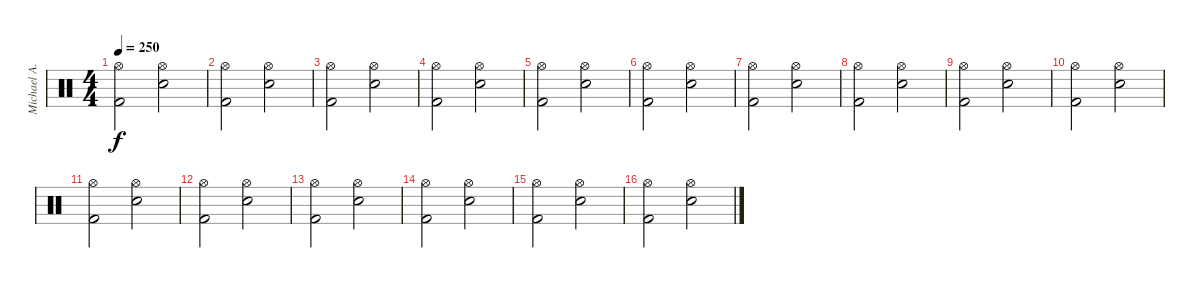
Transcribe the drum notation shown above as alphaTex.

\track ("Michael A." "Michael A.") {instrument percussion}
\staff {score}
\articulation defaults
\ts (4 4)
\tempo 250
\clef neutral
\ks c
("Hi-Hat (open)" "Kick (hit) 2").2{dy f} ("Hi-Hat (open)" "Electric Snare (hit)").2 |
("Hi-Hat (open)" "Kick (hit) 2").2 ("Hi-Hat (open)" "Electric Snare (hit)").2 |
("Hi-Hat (open)" "Kick (hit) 2").2 ("Hi-Hat (open)" "Electric Snare (hit)").2 |
("Hi-Hat (open)" "Kick (hit) 2").2 ("Hi-Hat (open)" "Electric Snare (hit)").2 |
("Hi-Hat (open)" "Kick (hit) 2").2 ("Hi-Hat (open)" "Electric Snare (hit)").2 |
("Hi-Hat (open)" "Kick (hit) 2").2 ("Hi-Hat (open)" "Electric Snare (hit)").2 |
("Hi-Hat (open)" "Kick (hit) 2").2 ("Hi-Hat (open)" "Electric Snare (hit)").2 |
("Hi-Hat (open)" "Kick (hit) 2").2 ("Hi-Hat (open)" "Electric Snare (hit)").2 |
("Hi-Hat (open)" "Kick (hit) 2").2 ("Hi-Hat (open)" "Electric Snare (hit)").2 |
("Hi-Hat (open)" "Kick (hit) 2").2 ("Hi-Hat (open)" "Electric Snare (hit)").2 |
("Hi-Hat (open)" "Kick (hit) 2").2 ("Hi-Hat (open)" "Electric Snare (hit)").2 |
("Hi-Hat (open)" "Kick (hit) 2").2 ("Hi-Hat (open)" "Electric Snare (hit)").2 |
("Hi-Hat (open)" "Kick (hit) 2").2 ("Hi-Hat (open)" "Electric Snare (hit)").2 |
("Hi-Hat (open)" "Kick (hit) 2").2 ("Hi-Hat (open)" "Electric Snare (hit)").2 |
("Hi-Hat (open)" "Kick (hit) 2").2 ("Hi-Hat (open)" "Electric Snare (hit)").2 |
("Hi-Hat (open)" "Kick (hit) 2").2 ("Hi-Hat (open)" "Electric Snare (hit)").2
